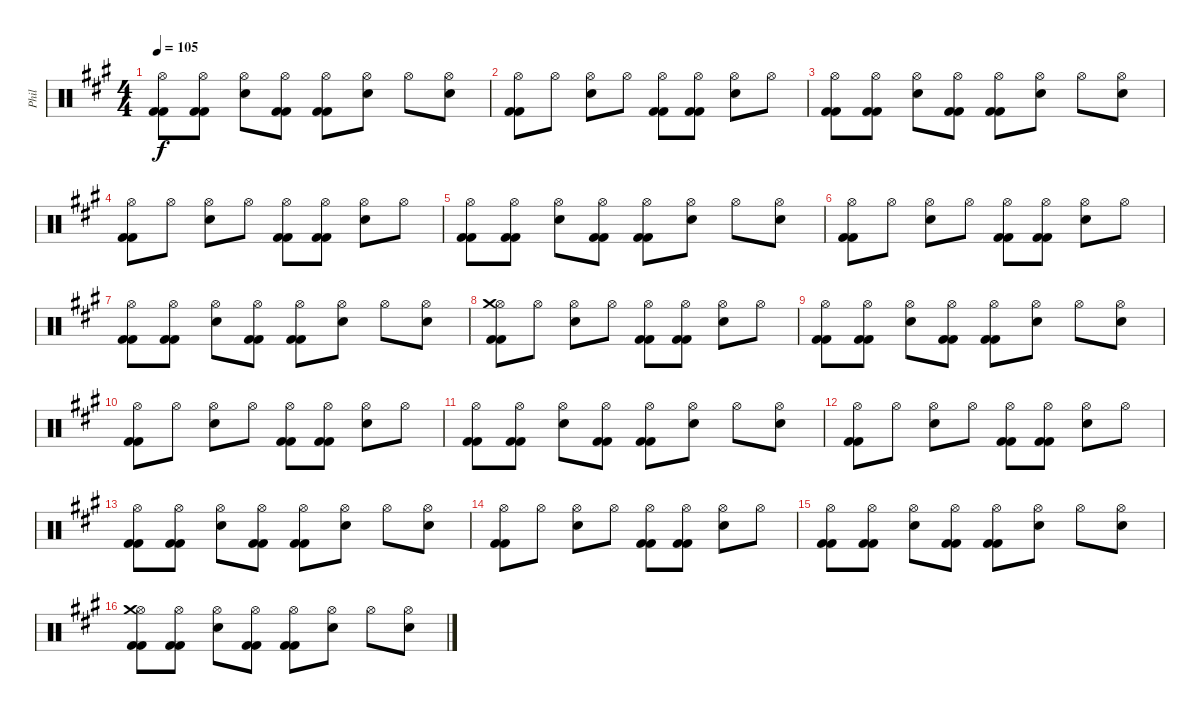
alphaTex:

\track ("Phil" "Phil") {instrument percussion}
\staff {score}
\articulation defaults
\ts (4 4)
\tempo 105
\clef neutral
\ks a
("Kick (hit) 2" "Hi-Hat (open)" "Kick (hit) 2").8{dy f} ("Kick (hit) 2" "Hi-Hat (open)" "Kick (hit) 2").8 ("Hi-Hat (open)" "Electric Snare (hit)").8 ("Kick (hit) 2" "Hi-Hat (open)" "Kick (hit) 2").8 ("Kick (hit) 2" "Hi-Hat (open)" "Kick (hit) 2").8 ("Hi-Hat (open)" "Electric Snare (hit)").8 "Hi-Hat (open)".8 ("Hi-Hat (open)" "Electric Snare (hit)").8 |
("Kick (hit) 2" "Hi-Hat (open)" "Kick (hit) 2").8 "Hi-Hat (open)".8 ("Hi-Hat (open)" "Electric Snare (hit)").8 "Hi-Hat (open)".8 ("Kick (hit) 2" "Hi-Hat (open)" "Kick (hit) 2").8 ("Kick (hit) 2" "Hi-Hat (open)" "Kick (hit) 2").8 ("Hi-Hat (open)" "Electric Snare (hit)").8 "Hi-Hat (open)".8 |
("Kick (hit) 2" "Hi-Hat (open)" "Kick (hit) 2").8 ("Kick (hit) 2" "Hi-Hat (open)" "Kick (hit) 2").8 ("Hi-Hat (open)" "Electric Snare (hit)").8 ("Kick (hit) 2" "Hi-Hat (open)" "Kick (hit) 2").8 ("Kick (hit) 2" "Hi-Hat (open)" "Kick (hit) 2").8 ("Hi-Hat (open)" "Electric Snare (hit)").8 "Hi-Hat (open)".8 ("Hi-Hat (open)" "Electric Snare (hit)").8 |
("Kick (hit) 2" "Hi-Hat (open)" "Kick (hit) 2").8 "Hi-Hat (open)".8 ("Hi-Hat (open)" "Electric Snare (hit)").8 "Hi-Hat (open)".8 ("Kick (hit) 2" "Hi-Hat (open)" "Kick (hit) 2").8 ("Kick (hit) 2" "Hi-Hat (open)" "Kick (hit) 2").8 ("Hi-Hat (open)" "Electric Snare (hit)").8 "Hi-Hat (open)".8 |
("Kick (hit) 2" "Hi-Hat (open)" "Kick (hit) 2").8 ("Kick (hit) 2" "Hi-Hat (open)" "Kick (hit) 2").8 ("Hi-Hat (open)" "Electric Snare (hit)").8 ("Kick (hit) 2" "Hi-Hat (open)" "Kick (hit) 2").8 ("Kick (hit) 2" "Hi-Hat (open)" "Kick (hit) 2").8 ("Hi-Hat (open)" "Electric Snare (hit)").8 "Hi-Hat (open)".8 ("Hi-Hat (open)" "Electric Snare (hit)").8 |
("Kick (hit) 2" "Hi-Hat (open)" "Kick (hit) 2").8 "Hi-Hat (open)".8 ("Hi-Hat (open)" "Electric Snare (hit)").8 "Hi-Hat (open)".8 ("Kick (hit) 2" "Hi-Hat (open)" "Kick (hit) 2").8 ("Kick (hit) 2" "Hi-Hat (open)" "Kick (hit) 2").8 ("Hi-Hat (open)" "Electric Snare (hit)").8 "Hi-Hat (open)".8 |
("Kick (hit) 2" "Hi-Hat (open)" "Kick (hit) 2").8 ("Kick (hit) 2" "Hi-Hat (open)" "Kick (hit) 2").8 ("Hi-Hat (open)" "Electric Snare (hit)").8 ("Kick (hit) 2" "Hi-Hat (open)" "Kick (hit) 2").8 ("Kick (hit) 2" "Hi-Hat (open)" "Kick (hit) 2").8 ("Hi-Hat (open)" "Electric Snare (hit)").8 "Hi-Hat (open)".8 ("Hi-Hat (open)" "Electric Snare (hit)").8 |
("Kick (hit) 2" "Hi-Hat (open)" "Kick (hit) 2" "Crash medium (hit)").8 "Hi-Hat (open)".8 ("Hi-Hat (open)" "Electric Snare (hit)").8 "Hi-Hat (open)".8 ("Kick (hit) 2" "Hi-Hat (open)" "Kick (hit) 2").8 ("Kick (hit) 2" "Hi-Hat (open)" "Kick (hit) 2").8 ("Hi-Hat (open)" "Electric Snare (hit)").8 "Hi-Hat (open)".8 |
("Kick (hit) 2" "Hi-Hat (open)" "Kick (hit) 2").8 ("Kick (hit) 2" "Hi-Hat (open)" "Kick (hit) 2").8 ("Hi-Hat (open)" "Electric Snare (hit)").8 ("Kick (hit) 2" "Hi-Hat (open)" "Kick (hit) 2").8 ("Kick (hit) 2" "Hi-Hat (open)" "Kick (hit) 2").8 ("Hi-Hat (open)" "Electric Snare (hit)").8 "Hi-Hat (open)".8 ("Hi-Hat (open)" "Electric Snare (hit)").8 |
("Kick (hit) 2" "Hi-Hat (open)" "Kick (hit) 2").8 "Hi-Hat (open)".8 ("Hi-Hat (open)" "Electric Snare (hit)").8 "Hi-Hat (open)".8 ("Kick (hit) 2" "Hi-Hat (open)" "Kick (hit) 2").8 ("Kick (hit) 2" "Hi-Hat (open)" "Kick (hit) 2").8 ("Hi-Hat (open)" "Electric Snare (hit)").8 "Hi-Hat (open)".8 |
("Kick (hit) 2" "Hi-Hat (open)" "Kick (hit) 2").8 ("Kick (hit) 2" "Hi-Hat (open)" "Kick (hit) 2").8 ("Hi-Hat (open)" "Electric Snare (hit)").8 ("Kick (hit) 2" "Hi-Hat (open)" "Kick (hit) 2").8 ("Kick (hit) 2" "Hi-Hat (open)" "Kick (hit) 2").8 ("Hi-Hat (open)" "Electric Snare (hit)").8 "Hi-Hat (open)".8 ("Hi-Hat (open)" "Electric Snare (hit)").8 |
("Kick (hit) 2" "Hi-Hat (open)" "Kick (hit) 2").8 "Hi-Hat (open)".8 ("Hi-Hat (open)" "Electric Snare (hit)").8 "Hi-Hat (open)".8 ("Kick (hit) 2" "Hi-Hat (open)" "Kick (hit) 2").8 ("Kick (hit) 2" "Hi-Hat (open)" "Kick (hit) 2").8 ("Hi-Hat (open)" "Electric Snare (hit)").8 "Hi-Hat (open)".8 |
("Kick (hit) 2" "Hi-Hat (open)" "Kick (hit) 2").8 ("Kick (hit) 2" "Hi-Hat (open)" "Kick (hit) 2").8 ("Hi-Hat (open)" "Electric Snare (hit)").8 ("Kick (hit) 2" "Hi-Hat (open)" "Kick (hit) 2").8 ("Kick (hit) 2" "Hi-Hat (open)" "Kick (hit) 2").8 ("Hi-Hat (open)" "Electric Snare (hit)").8 "Hi-Hat (open)".8 ("Hi-Hat (open)" "Electric Snare (hit)").8 |
("Kick (hit) 2" "Hi-Hat (open)" "Kick (hit) 2").8 "Hi-Hat (open)".8 ("Hi-Hat (open)" "Electric Snare (hit)").8 "Hi-Hat (open)".8 ("Kick (hit) 2" "Hi-Hat (open)" "Kick (hit) 2").8 ("Kick (hit) 2" "Hi-Hat (open)" "Kick (hit) 2").8 ("Hi-Hat (open)" "Electric Snare (hit)").8 "Hi-Hat (open)".8 |
("Kick (hit) 2" "Hi-Hat (open)" "Kick (hit) 2").8 ("Kick (hit) 2" "Hi-Hat (open)" "Kick (hit) 2").8 ("Hi-Hat (open)" "Electric Snare (hit)").8 ("Kick (hit) 2" "Hi-Hat (open)" "Kick (hit) 2").8 ("Kick (hit) 2" "Hi-Hat (open)" "Kick (hit) 2").8 ("Hi-Hat (open)" "Electric Snare (hit)").8 "Hi-Hat (open)".8 ("Hi-Hat (open)" "Electric Snare (hit)").8 |
("Kick (hit) 2" "Hi-Hat (open)" "Kick (hit) 2" "Crash medium (hit)").8 ("Kick (hit) 2" "Hi-Hat (open)" "Kick (hit) 2").8 ("Hi-Hat (open)" "Electric Snare (hit)").8 ("Kick (hit) 2" "Hi-Hat (open)" "Kick (hit) 2").8 ("Kick (hit) 2" "Hi-Hat (open)" "Kick (hit) 2").8 ("Hi-Hat (open)" "Electric Snare (hit)").8 "Hi-Hat (open)".8 ("Hi-Hat (open)" "Electric Snare (hit)").8
